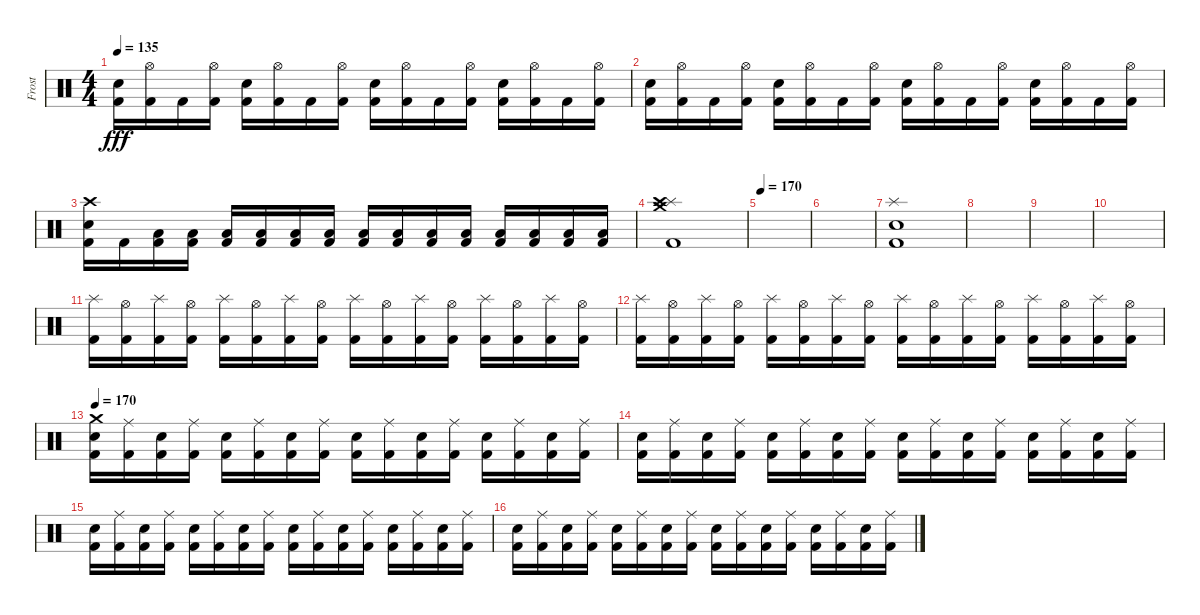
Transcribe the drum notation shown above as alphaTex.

\track ("Frost" "Frost") {instrument percussion}
\staff {score}
\articulation defaults
\ts (4 4)
\tempo 135
\clef neutral
\ks c
("Electric Snare (hit)" "Kick (hit) 2").16{dy fff} ("Hi-Hat (open)" "Kick (hit) 2").16 "Kick (hit) 2".16 ("Hi-Hat (open)" "Kick (hit) 2").16 ("Electric Snare (hit)" "Kick (hit) 2").16 ("Hi-Hat (open)" "Kick (hit) 2").16 "Kick (hit) 2".16 ("Hi-Hat (open)" "Kick (hit) 2").16 ("Electric Snare (hit)" "Kick (hit) 2").16 ("Hi-Hat (open)" "Kick (hit) 2").16 "Kick (hit) 2".16 ("Hi-Hat (open)" "Kick (hit) 2").16 ("Electric Snare (hit)" "Kick (hit) 2").16 ("Hi-Hat (open)" "Kick (hit) 2").16 "Kick (hit) 2".16 ("Hi-Hat (open)" "Kick (hit) 2").16 |
("Electric Snare (hit)" "Kick (hit) 2").16 ("Hi-Hat (open)" "Kick (hit) 2").16 "Kick (hit) 2".16 ("Hi-Hat (open)" "Kick (hit) 2").16 ("Electric Snare (hit)" "Kick (hit) 2").16 ("Hi-Hat (open)" "Kick (hit) 2").16 "Kick (hit) 2".16 ("Hi-Hat (open)" "Kick (hit) 2").16 ("Electric Snare (hit)" "Kick (hit) 2").16 ("Hi-Hat (open)" "Kick (hit) 2").16 "Kick (hit) 2".16 ("Hi-Hat (open)" "Kick (hit) 2").16 ("Electric Snare (hit)" "Kick (hit) 2").16 ("Hi-Hat (open)" "Kick (hit) 2").16 "Kick (hit) 2".16 ("Hi-Hat (open)" "Kick (hit) 2").16 |
("Crash high (hit)" "Electric Snare (hit)" "Kick (hit) 2").16 "Kick (hit) 2".16 ("Low Tom (hit)" "Kick (hit) 2").16 ("Low Tom (hit)" "Kick (hit) 2").16 ("Low Tom (hit)" "Kick (hit) 2").16 ("Low Tom (hit)" "Kick (hit) 2").16 ("Low Floor Tom (hit)" "Kick (hit) 2").16 ("Low Floor Tom (hit)" "Kick (hit) 2").16 ("Low Floor Tom (hit)" "Kick (hit) 2").16 ("Low Floor Tom (hit)" "Kick (hit) 2").16 ("Low Floor Tom (hit)" "Kick (hit) 2").16 ("Low Floor Tom (hit)" "Kick (hit) 2").16 ("Low Floor Tom (hit)" "Kick (hit) 2").16 ("Low Floor Tom (hit)" "Kick (hit) 2").16 ("Low Floor Tom (hit)" "Kick (hit) 2").16 ("Low Floor Tom (hit)" "Kick (hit) 2").16 |
("Splash (hit)" "Crash medium (hit)" "Crash high (hit)" "Kick (hit) 2").1 |
\tempo 170
|
|
("Splash (hit)" "Electric Snare (hit)" "Kick (hit) 2").1 |
|
|
|
("Splash (hit)" "Kick (hit) 2").16 ("Hi-Hat (open)" "Kick (hit) 2").16 ("Splash (hit)" "Kick (hit) 2").16 ("Hi-Hat (open)" "Kick (hit) 2").16 ("Splash (hit)" "Kick (hit) 2").16 ("Hi-Hat (open)" "Kick (hit) 2").16 ("Splash (hit)" "Kick (hit) 2").16 ("Hi-Hat (open)" "Kick (hit) 2").16 ("Splash (hit)" "Kick (hit) 2").16 ("Hi-Hat (open)" "Kick (hit) 2").16 ("Splash (hit)" "Kick (hit) 2").16 ("Hi-Hat (open)" "Kick (hit) 2").16 ("Splash (hit)" "Kick (hit) 2").16 ("Hi-Hat (open)" "Kick (hit) 2").16 ("Splash (hit)" "Kick (hit) 2").16 ("Hi-Hat (open)" "Kick (hit) 2").16 |
("Splash (hit)" "Kick (hit) 2").16 ("Hi-Hat (open)" "Kick (hit) 2").16 ("Splash (hit)" "Kick (hit) 2").16 ("Hi-Hat (open)" "Kick (hit) 2").16 ("Splash (hit)" "Kick (hit) 2").16 ("Hi-Hat (open)" "Kick (hit) 2").16 ("Splash (hit)" "Kick (hit) 2").16 ("Hi-Hat (open)" "Kick (hit) 2").16 ("Splash (hit)" "Kick (hit) 2").16 ("Hi-Hat (open)" "Kick (hit) 2").16 ("Splash (hit)" "Kick (hit) 2").16 ("Hi-Hat (open)" "Kick (hit) 2").16 ("Splash (hit)" "Kick (hit) 2").16 ("Hi-Hat (open)" "Kick (hit) 2").16 ("Splash (hit)" "Kick (hit) 2").16 ("Hi-Hat (open)" "Kick (hit) 2").16 |
\tempo 170
("Crash medium (hit)" "Electric Snare (hit)" "Kick (hit) 2").16 ("Ride (middle)" "Kick (hit) 2").16 ("Electric Snare (hit)" "Kick (hit) 2").16 ("Ride (middle)" "Kick (hit) 2").16 ("Electric Snare (hit)" "Kick (hit) 2").16 ("Ride (middle)" "Kick (hit) 2").16 ("Electric Snare (hit)" "Kick (hit) 2").16 ("Ride (middle)" "Kick (hit) 2").16 ("Electric Snare (hit)" "Kick (hit) 2").16 ("Ride (middle)" "Kick (hit) 2").16 ("Electric Snare (hit)" "Kick (hit) 2").16 ("Ride (middle)" "Kick (hit) 2").16 ("Electric Snare (hit)" "Kick (hit) 2").16 ("Ride (middle)" "Kick (hit) 2").16 ("Electric Snare (hit)" "Kick (hit) 2").16 ("Ride (middle)" "Kick (hit) 2").16 |
("Electric Snare (hit)" "Kick (hit) 2").16 ("Ride (middle)" "Kick (hit) 2").16 ("Electric Snare (hit)" "Kick (hit) 2").16 ("Ride (middle)" "Kick (hit) 2").16 ("Electric Snare (hit)" "Kick (hit) 2").16 ("Ride (middle)" "Kick (hit) 2").16 ("Electric Snare (hit)" "Kick (hit) 2").16 ("Ride (middle)" "Kick (hit) 2").16 ("Electric Snare (hit)" "Kick (hit) 2").16 ("Ride (middle)" "Kick (hit) 2").16 ("Electric Snare (hit)" "Kick (hit) 2").16 ("Ride (middle)" "Kick (hit) 2").16 ("Electric Snare (hit)" "Kick (hit) 2").16 ("Ride (middle)" "Kick (hit) 2").16 ("Electric Snare (hit)" "Kick (hit) 2").16 ("Ride (middle)" "Kick (hit) 2").16 |
("Electric Snare (hit)" "Kick (hit) 2").16 ("Ride (middle)" "Kick (hit) 2").16 ("Electric Snare (hit)" "Kick (hit) 2").16 ("Ride (middle)" "Kick (hit) 2").16 ("Electric Snare (hit)" "Kick (hit) 2").16 ("Ride (middle)" "Kick (hit) 2").16 ("Electric Snare (hit)" "Kick (hit) 2").16 ("Ride (middle)" "Kick (hit) 2").16 ("Electric Snare (hit)" "Kick (hit) 2").16 ("Ride (middle)" "Kick (hit) 2").16 ("Electric Snare (hit)" "Kick (hit) 2").16 ("Ride (middle)" "Kick (hit) 2").16 ("Electric Snare (hit)" "Kick (hit) 2").16 ("Ride (middle)" "Kick (hit) 2").16 ("Electric Snare (hit)" "Kick (hit) 2").16 ("Ride (middle)" "Kick (hit) 2").16 |
("Electric Snare (hit)" "Kick (hit) 2").16 ("Ride (middle)" "Kick (hit) 2").16 ("Electric Snare (hit)" "Kick (hit) 2").16 ("Ride (middle)" "Kick (hit) 2").16 ("Electric Snare (hit)" "Kick (hit) 2").16 ("Ride (middle)" "Kick (hit) 2").16 ("Electric Snare (hit)" "Kick (hit) 2").16 ("Ride (middle)" "Kick (hit) 2").16 ("Electric Snare (hit)" "Kick (hit) 2").16 ("Ride (middle)" "Kick (hit) 2").16 ("Electric Snare (hit)" "Kick (hit) 2").16 ("Ride (middle)" "Kick (hit) 2").16 ("Electric Snare (hit)" "Kick (hit) 2").16 ("Ride (middle)" "Kick (hit) 2").16 ("Electric Snare (hit)" "Kick (hit) 2").16 ("Ride (middle)" "Kick (hit) 2").16
